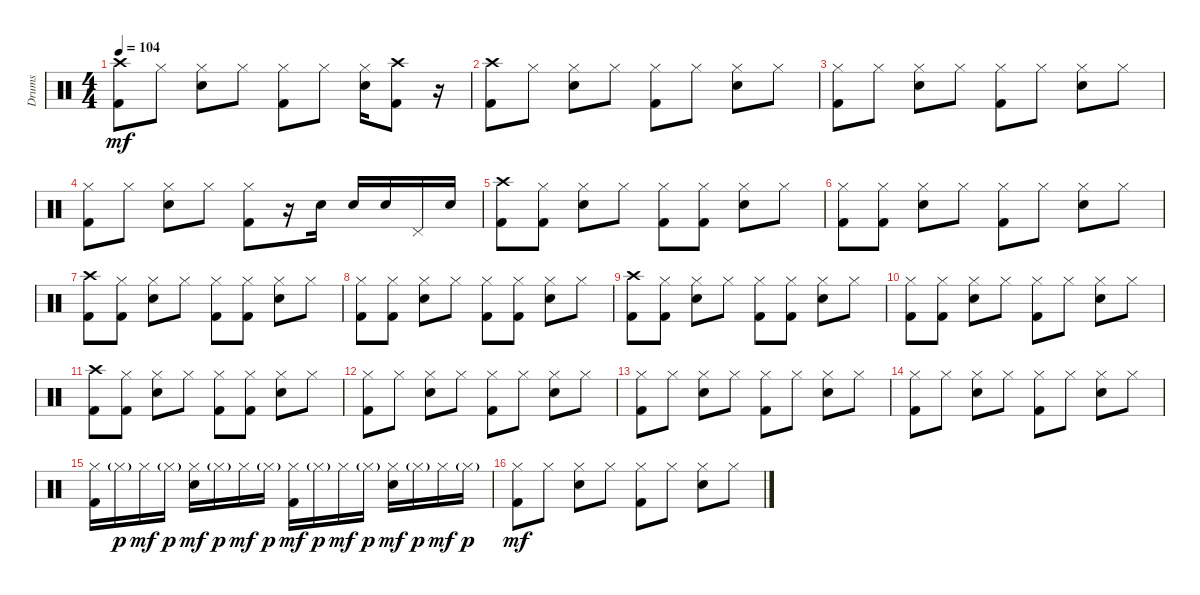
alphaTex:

\track ("Drums" "Drums") {instrument percussion}
\staff {score}
\articulation defaults
\ts (4 4)
\tempo 104
\clef neutral
\ks c
("Crash high (hit)" "Kick (hit) 2").8{dy mf} "Hi-Hat (closed)".8 ("Hi-Hat (closed)" "Electric Snare (hit)").8 "Hi-Hat (closed)".8 ("Hi-Hat (closed)" "Kick (hit) 2").8 "Hi-Hat (closed)".8 ("Hi-Hat (closed)" "Electric Snare (hit)").16 ("Crash high (hit)" "Kick (hit) 2").8 r.16 |
("Crash high (hit)" "Kick (hit) 2").8 "Hi-Hat (closed)".8 ("Hi-Hat (closed)" "Electric Snare (hit)").8 "Hi-Hat (closed)".8 ("Hi-Hat (closed)" "Kick (hit) 2").8 "Hi-Hat (closed)".8 ("Hi-Hat (closed)" "Electric Snare (hit)").8 "Hi-Hat (closed)".8 |
("Hi-Hat (closed)" "Kick (hit) 2").8 "Hi-Hat (closed)".8 ("Hi-Hat (closed)" "Electric Snare (hit)").8 "Hi-Hat (closed)".8 ("Hi-Hat (closed)" "Kick (hit) 2").8 "Hi-Hat (closed)".8 ("Hi-Hat (closed)" "Electric Snare (hit)").8 "Hi-Hat (closed)".8 |
("Hi-Hat (closed)" "Kick (hit) 2").8 "Hi-Hat (closed)".8 ("Hi-Hat (closed)" "Electric Snare (hit)").8 "Hi-Hat (closed)".8 ("Hi-Hat (closed)" "Kick (hit) 2").8 r.16 "Electric Snare (hit)".16 "Electric Snare (hit)".16 "Electric Snare (hit)".16 "Pedal Hi-Hat (hit)".16 "Electric Snare (hit)".16 |
("Crash high (hit)" "Kick (hit) 2").8 ("Hi-Hat (closed)" "Kick (hit) 2").8 ("Hi-Hat (closed)" "Electric Snare (hit)").8 "Hi-Hat (closed)".8 ("Hi-Hat (closed)" "Kick (hit) 2").8 ("Hi-Hat (closed)" "Kick (hit) 2").8 ("Hi-Hat (closed)" "Electric Snare (hit)").8 "Hi-Hat (closed)".8 |
("Hi-Hat (closed)" "Kick (hit) 2").8 ("Hi-Hat (closed)" "Kick (hit) 2").8 ("Hi-Hat (closed)" "Electric Snare (hit)").8 "Hi-Hat (closed)".8 ("Hi-Hat (closed)" "Kick (hit) 2").8 "Hi-Hat (closed)".8 ("Hi-Hat (closed)" "Electric Snare (hit)").8 "Hi-Hat (closed)".8 |
("Crash high (hit)" "Kick (hit) 2").8 ("Hi-Hat (closed)" "Kick (hit) 2").8 ("Hi-Hat (closed)" "Electric Snare (hit)").8 "Hi-Hat (closed)".8 ("Hi-Hat (closed)" "Kick (hit) 2").8 ("Hi-Hat (closed)" "Kick (hit) 2").8 ("Hi-Hat (closed)" "Electric Snare (hit)").8 "Hi-Hat (closed)".8 |
("Hi-Hat (closed)" "Kick (hit) 2").8 ("Hi-Hat (closed)" "Kick (hit) 2").8 ("Hi-Hat (closed)" "Electric Snare (hit)").8 "Hi-Hat (closed)".8 ("Hi-Hat (closed)" "Kick (hit) 2").8 ("Hi-Hat (closed)" "Kick (hit) 2").8 ("Hi-Hat (closed)" "Electric Snare (hit)").8 "Hi-Hat (closed)".8 |
("Crash high (hit)" "Kick (hit) 2").8 ("Hi-Hat (closed)" "Kick (hit) 2").8 ("Hi-Hat (closed)" "Electric Snare (hit)").8 "Hi-Hat (closed)".8 ("Hi-Hat (closed)" "Kick (hit) 2").8 ("Hi-Hat (closed)" "Kick (hit) 2").8 ("Hi-Hat (closed)" "Electric Snare (hit)").8 "Hi-Hat (closed)".8 |
("Hi-Hat (closed)" "Kick (hit) 2").8 ("Hi-Hat (closed)" "Kick (hit) 2").8 ("Hi-Hat (closed)" "Electric Snare (hit)").8 "Hi-Hat (closed)".8 ("Hi-Hat (closed)" "Kick (hit) 2").8 "Hi-Hat (closed)".8 ("Hi-Hat (closed)" "Electric Snare (hit)").8 "Hi-Hat (closed)".8 |
("Crash high (hit)" "Kick (hit) 2").8 ("Hi-Hat (closed)" "Kick (hit) 2").8 ("Hi-Hat (closed)" "Electric Snare (hit)").8 "Hi-Hat (closed)".8 ("Hi-Hat (closed)" "Kick (hit) 2").8 ("Hi-Hat (closed)" "Kick (hit) 2").8 ("Hi-Hat (closed)" "Electric Snare (hit)").8 "Hi-Hat (closed)".8 |
("Hi-Hat (closed)" "Kick (hit) 2").8 "Hi-Hat (closed)".8 ("Hi-Hat (closed)" "Electric Snare (hit)").8 "Hi-Hat (closed)".8 ("Hi-Hat (closed)" "Kick (hit) 2").8 "Hi-Hat (closed)".8 ("Hi-Hat (closed)" "Electric Snare (hit)").8 "Hi-Hat (closed)".8 |
("Hi-Hat (closed)" "Kick (hit) 2").8 "Hi-Hat (closed)".8 ("Hi-Hat (closed)" "Electric Snare (hit)").8 "Hi-Hat (closed)".8 ("Hi-Hat (closed)" "Kick (hit) 2").8 "Hi-Hat (closed)".8 ("Hi-Hat (closed)" "Electric Snare (hit)").8 "Hi-Hat (closed)".8 |
("Hi-Hat (closed)" "Kick (hit) 2").8 "Hi-Hat (closed)".8 ("Hi-Hat (closed)" "Electric Snare (hit)").8 "Hi-Hat (closed)".8 ("Hi-Hat (closed)" "Kick (hit) 2").8 "Hi-Hat (closed)".8 ("Hi-Hat (closed)" "Electric Snare (hit)").8 "Hi-Hat (closed)".8 |
("Hi-Hat (closed)" "Kick (hit) 2").16 "Hi-Hat (closed)"{g}.16{dy p} "Hi-Hat (closed)".16{dy mf} "Hi-Hat (closed)"{g}.16{dy p} ("Hi-Hat (closed)" "Electric Snare (hit)").16{dy mf} "Hi-Hat (closed)"{g}.16{dy p} "Hi-Hat (closed)".16{dy mf} "Hi-Hat (closed)"{g}.16{dy p} ("Hi-Hat (closed)" "Kick (hit) 2").16{dy mf} "Hi-Hat (closed)"{g}.16{dy p} "Hi-Hat (closed)".16{dy mf} "Hi-Hat (closed)"{g}.16{dy p} ("Hi-Hat (closed)" "Electric Snare (hit)").16{dy mf} "Hi-Hat (closed)"{g}.16{dy p} "Hi-Hat (closed)".16{dy mf} "Hi-Hat (closed)"{g}.16{dy p} |
("Hi-Hat (closed)" "Kick (hit) 2").8{dy mf} "Hi-Hat (closed)".8 ("Hi-Hat (closed)" "Electric Snare (hit)").8 "Hi-Hat (closed)".8 ("Hi-Hat (closed)" "Kick (hit) 2").8 "Hi-Hat (closed)".8 ("Hi-Hat (closed)" "Electric Snare (hit)").8 "Hi-Hat (closed)".8
